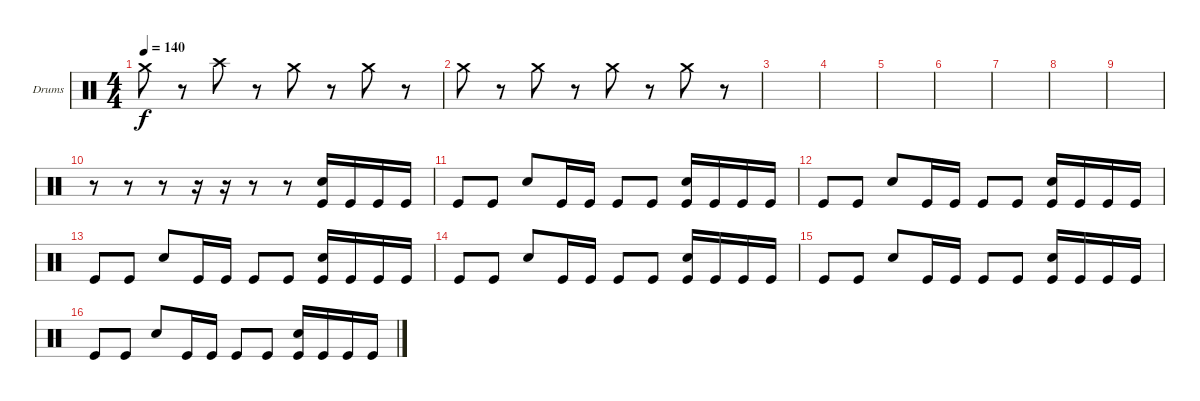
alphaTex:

\defaultSystemsLayout 4
\bracketExtendMode groupsimilarinstruments
\firstSystemTrackNameOrientation horizontal
\otherSystemsTrackNameOrientation horizontal
\track ("Drumkit" "Drums") {instrument percussion}
\staff {score}
\articulation defaults
\ts (4 4)
\tempo 140
\clef neutral
\ks c "Crash medium (hit)".8{dy f}
r.8 "Crash high (hit)".8 r.8 "Crash medium (hit)".8 r.8 "Crash medium (hit)".8 r.8 |
"Crash medium (hit)".8 r.8 "Crash medium (hit)".8 r.8 "Crash medium (hit)".8 r.8 "Crash medium (hit)".8 r.8 |
|
|
|
|
|
|
|
r.8 r.8 r.8 r.16 r.16 r.8 r.8 ("Kick (hit)" "Snare (hit) 2").16 "Kick (hit)".16 "Kick (hit)".16 "Kick (hit)".16 |
"Kick (hit)".8 "Kick (hit)".8 "Snare (hit) 2".8 "Kick (hit)".16 "Kick (hit)".16 "Kick (hit)".8 "Kick (hit)".8 ("Kick (hit)" "Snare (hit) 2").16 "Kick (hit)".16 "Kick (hit)".16 "Kick (hit)".16 |
"Kick (hit)".8 "Kick (hit)".8 "Snare (hit) 2".8 "Kick (hit)".16 "Kick (hit)".16 "Kick (hit)".8 "Kick (hit)".8 ("Kick (hit)" "Snare (hit) 2").16 "Kick (hit)".16 "Kick (hit)".16 "Kick (hit)".16 |
"Kick (hit)".8 "Kick (hit)".8 "Snare (hit) 2".8 "Kick (hit)".16 "Kick (hit)".16 "Kick (hit)".8 "Kick (hit)".8 ("Kick (hit)" "Snare (hit) 2").16 "Kick (hit)".16 "Kick (hit)".16 "Kick (hit)".16 |
"Kick (hit)".8 "Kick (hit)".8 "Snare (hit) 2".8 "Kick (hit)".16 "Kick (hit)".16 "Kick (hit)".8 "Kick (hit)".8 ("Kick (hit)" "Snare (hit) 2").16 "Kick (hit)".16 "Kick (hit)".16 "Kick (hit)".16 |
"Kick (hit)".8 "Kick (hit)".8 "Snare (hit) 2".8 "Kick (hit)".16 "Kick (hit)".16 "Kick (hit)".8 "Kick (hit)".8 ("Kick (hit)" "Snare (hit) 2").16 "Kick (hit)".16 "Kick (hit)".16 "Kick (hit)".16 |
"Kick (hit)".8 "Kick (hit)".8 "Snare (hit) 2".8 "Kick (hit)".16 "Kick (hit)".16 "Kick (hit)".8 "Kick (hit)".8 ("Kick (hit)" "Snare (hit) 2").16 "Kick (hit)".16 "Kick (hit)".16 "Kick (hit)".16
